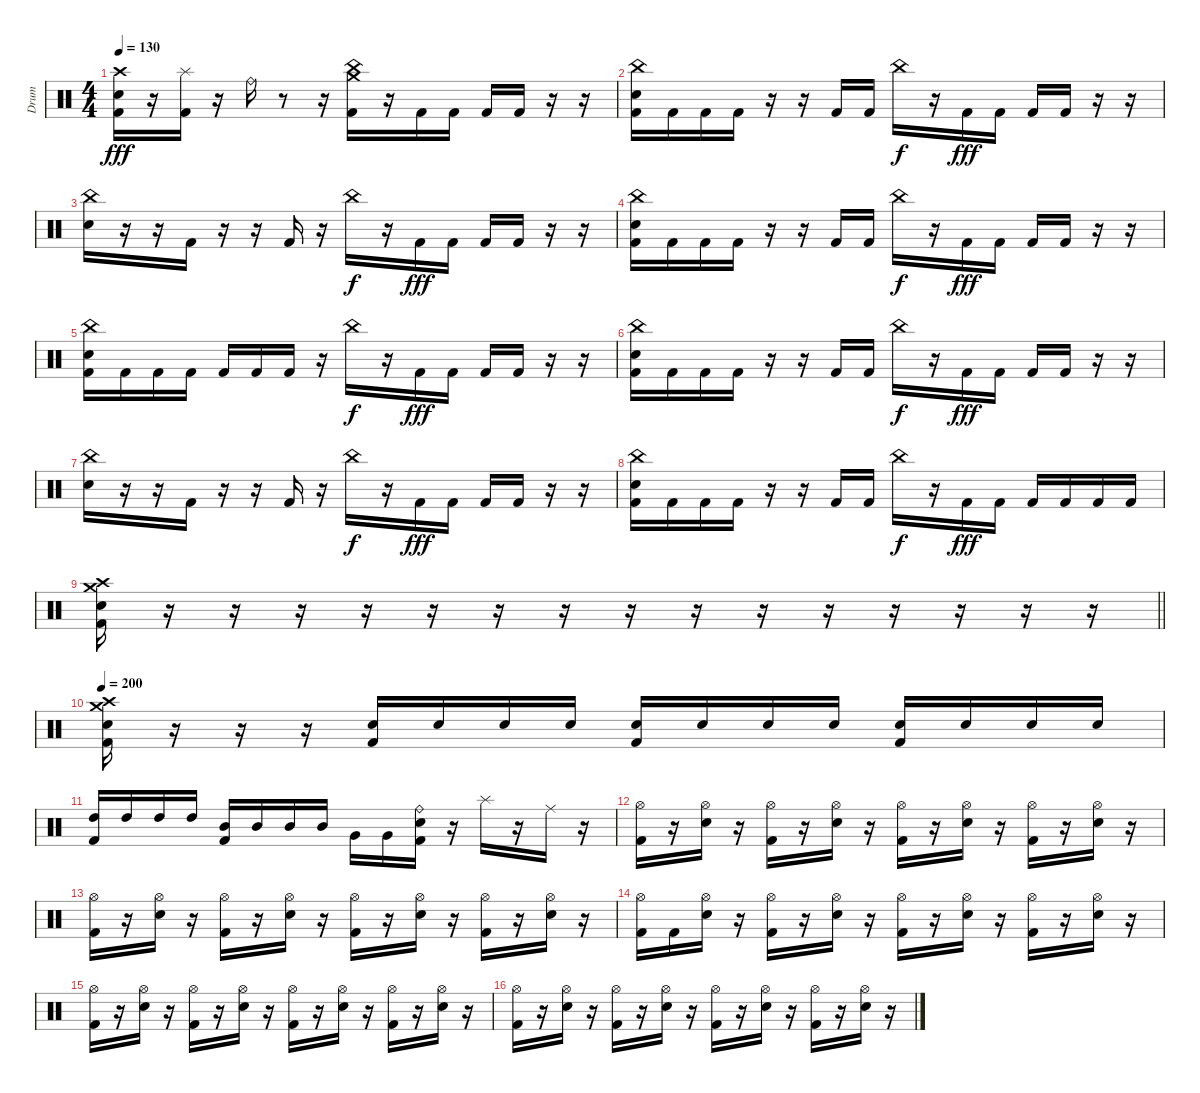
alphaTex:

\track ("Drum" "Drum") {instrument percussion}
\staff {score}
\articulation defaults
\ts (4 4)
\tempo 130
\clef neutral
\ks c
("Crash high (hit)" "Electric Snare (hit)" "Kick (hit) 2").16{dy fff} r.16 ("Splash (hit)" "Kick (hit) 2").16 r.16 "Ride (bell)".16 r.8 r.16 ("China (hit)" "Crash medium (hit)" "Kick (hit) 2").16 r.16 "Kick (hit) 2".16 "Kick (hit) 2".16 "Kick (hit) 2".16 "Kick (hit) 2".16 r.16 r.16 |
("China (hit)" "Electric Snare (hit)" "Kick (hit) 2").16 "Kick (hit) 2".16 "Kick (hit) 2".16 "Kick (hit) 2".16 r.16 r.16 "Kick (hit) 2".16 "Kick (hit) 2".16 "China (hit)".16{dy f} r.16 "Kick (hit) 2".16{dy fff} "Kick (hit) 2".16 "Kick (hit) 2".16 "Kick (hit) 2".16 r.16 r.16 |
("China (hit)" "Electric Snare (hit)").16 r.16 r.16 "Kick (hit) 2".16 r.16 r.16 "Kick (hit) 2".16 r.16 "China (hit)".16{dy f} r.16 "Kick (hit) 2".16{dy fff} "Kick (hit) 2".16 "Kick (hit) 2".16 "Kick (hit) 2".16 r.16 r.16 |
("China (hit)" "Electric Snare (hit)" "Kick (hit) 2").16 "Kick (hit) 2".16 "Kick (hit) 2".16 "Kick (hit) 2".16 r.16 r.16 "Kick (hit) 2".16 "Kick (hit) 2".16 "China (hit)".16{dy f} r.16 "Kick (hit) 2".16{dy fff} "Kick (hit) 2".16 "Kick (hit) 2".16 "Kick (hit) 2".16 r.16 r.16 |
("China (hit)" "Electric Snare (hit)" "Kick (hit) 2").16 "Kick (hit) 2".16 "Kick (hit) 2".16 "Kick (hit) 2".16 "Kick (hit) 2".16 "Kick (hit) 2".16 "Kick (hit) 2".16 r.16 "China (hit)".16{dy f} r.16 "Kick (hit) 2".16{dy fff} "Kick (hit) 2".16 "Kick (hit) 2".16 "Kick (hit) 2".16 r.16 r.16 |
("China (hit)" "Electric Snare (hit)" "Kick (hit) 2").16 "Kick (hit) 2".16 "Kick (hit) 2".16 "Kick (hit) 2".16 r.16 r.16 "Kick (hit) 2".16 "Kick (hit) 2".16 "China (hit)".16{dy f} r.16 "Kick (hit) 2".16{dy fff} "Kick (hit) 2".16 "Kick (hit) 2".16 "Kick (hit) 2".16 r.16 r.16 |
("China (hit)" "Electric Snare (hit)").16 r.16 r.16 "Kick (hit) 2".16 r.16 r.16 "Kick (hit) 2".16 r.16 "China (hit)".16{dy f} r.16 "Kick (hit) 2".16{dy fff} "Kick (hit) 2".16 "Kick (hit) 2".16 "Kick (hit) 2".16 r.16 r.16 |
("China (hit)" "Electric Snare (hit)" "Kick (hit) 2").16 "Kick (hit) 2".16 "Kick (hit) 2".16 "Kick (hit) 2".16 r.16 r.16 "Kick (hit) 2".16 "Kick (hit) 2".16 "China (hit)".16{dy f} r.16 "Kick (hit) 2".16{dy fff} "Kick (hit) 2".16 "Kick (hit) 2".16 "Kick (hit) 2".16 "Kick (hit) 2".16 "Kick (hit) 2".16 |
\barLineRight lightlight
("Crash high (hit)" "Crash medium (hit)" "Electric Snare (hit)" "Kick (hit) 2").16 r.16 r.16 r.16 r.16 r.16 r.16 r.16 r.16 r.16 r.16 r.16 r.16 r.16 r.16 r.16 |
\section ("" "")
\tempo 200
("Crash high (hit)" "Crash medium (hit)" "Electric Snare (hit)" "Kick (hit) 2").16 r.16 r.16 r.16 ("Electric Snare (hit)" "Kick (hit) 2").16 "Electric Snare (hit)".16 "Electric Snare (hit)".16 "Electric Snare (hit)".16 ("Electric Snare (hit)" "Kick (hit) 2").16 "Electric Snare (hit)".16 "Electric Snare (hit)".16 "Electric Snare (hit)".16 ("Electric Snare (hit)" "Kick (hit) 2").16 "Electric Snare (hit)".16 "Electric Snare (hit)".16 "Electric Snare (hit)".16 |
("High Tom (hit)" "Kick (hit) 2").16 "High Tom (hit)".16 "High Tom (hit)".16 "High Tom (hit)".16 ("Mid Tom (hit)" "Kick (hit) 2").16 "Mid Tom (hit)".16 "Mid Tom (hit)".16 "Mid Tom (hit)".16 "Very Low Tom (hit)".16 "Very Low Tom (hit)".16 ("Ride (bell)" "Electric Snare (hit)" "Kick (hit) 2").16 r.16 "Splash (hit)".16 r.16 "Ride (middle)".16 r.16 |
("Hi-Hat (open)" "Kick (hit) 2").16 r.16 ("Hi-Hat (open)" "Electric Snare (hit)").16 r.16 ("Hi-Hat (open)" "Kick (hit) 2").16 r.16 ("Hi-Hat (open)" "Electric Snare (hit)").16 r.16 ("Hi-Hat (open)" "Kick (hit) 2").16 r.16 ("Hi-Hat (open)" "Electric Snare (hit)").16 r.16 ("Hi-Hat (open)" "Kick (hit) 2").16 r.16 ("Hi-Hat (open)" "Electric Snare (hit)").16 r.16 |
("Hi-Hat (open)" "Kick (hit) 2").16 r.16 ("Hi-Hat (open)" "Electric Snare (hit)").16 r.16 ("Hi-Hat (open)" "Kick (hit) 2").16 r.16 ("Hi-Hat (open)" "Electric Snare (hit)").16 r.16 ("Hi-Hat (open)" "Kick (hit) 2").16 r.16 ("Hi-Hat (open)" "Electric Snare (hit)").16 r.16 ("Hi-Hat (open)" "Kick (hit) 2").16 r.16 ("Hi-Hat (open)" "Electric Snare (hit)").16 r.16 |
("Hi-Hat (open)" "Kick (hit) 2").16 "Kick (hit) 2".16 ("Hi-Hat (open)" "Electric Snare (hit)").16 r.16 ("Hi-Hat (open)" "Kick (hit) 2").16 r.16 ("Hi-Hat (open)" "Electric Snare (hit)").16 r.16 ("Hi-Hat (open)" "Kick (hit) 2").16 r.16 ("Hi-Hat (open)" "Electric Snare (hit)").16 r.16 ("Hi-Hat (open)" "Kick (hit) 2").16 r.16 ("Hi-Hat (open)" "Electric Snare (hit)").16 r.16 |
("Hi-Hat (open)" "Kick (hit) 2").16 r.16 ("Hi-Hat (open)" "Electric Snare (hit)").16 r.16 ("Hi-Hat (open)" "Kick (hit) 2").16 r.16 ("Hi-Hat (open)" "Electric Snare (hit)").16 r.16 ("Hi-Hat (open)" "Kick (hit) 2").16 r.16 ("Hi-Hat (open)" "Electric Snare (hit)").16 r.16 ("Hi-Hat (open)" "Kick (hit) 2").16 r.16 ("Hi-Hat (open)" "Electric Snare (hit)").16 r.16 |
("Hi-Hat (open)" "Kick (hit) 2").16 r.16 ("Hi-Hat (open)" "Electric Snare (hit)").16 r.16 ("Hi-Hat (open)" "Kick (hit) 2").16 r.16 ("Hi-Hat (open)" "Electric Snare (hit)").16 r.16 ("Hi-Hat (open)" "Kick (hit) 2").16 r.16 ("Hi-Hat (open)" "Electric Snare (hit)").16 r.16 ("Hi-Hat (open)" "Kick (hit) 2").16 r.16 ("Hi-Hat (open)" "Electric Snare (hit)").16 r.16
